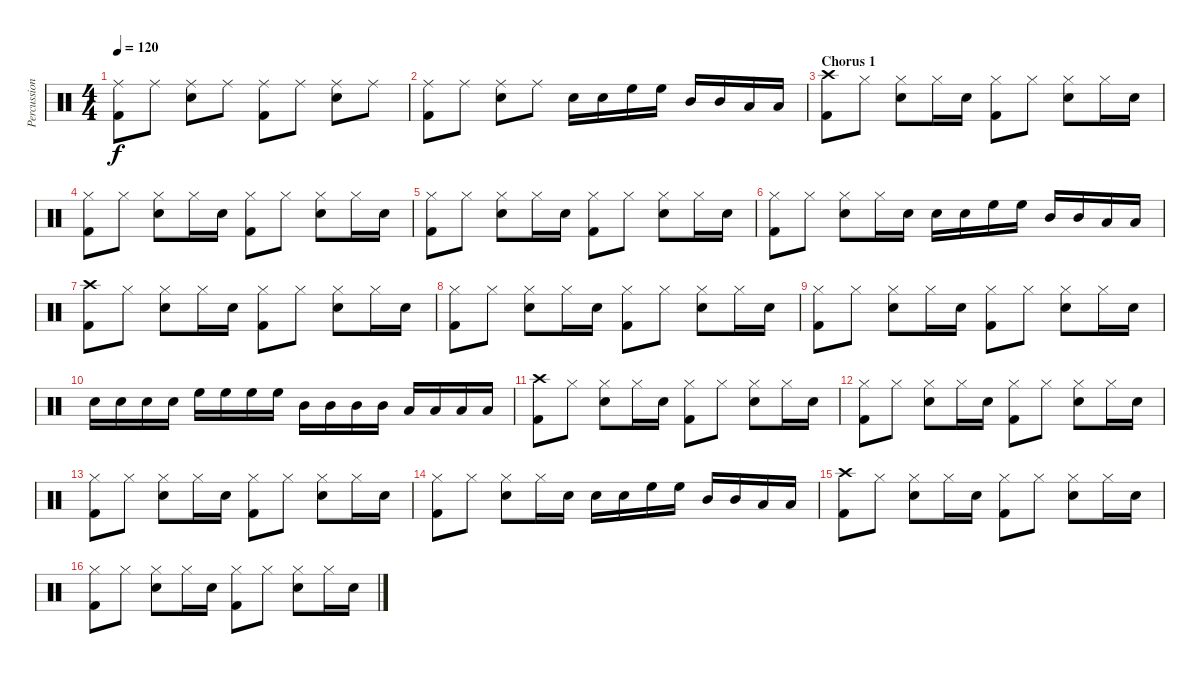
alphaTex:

\track ("Percussion" "Percussion") {instrument percussion}
\staff {score}
\articulation defaults
\ts (4 4)
\tempo 120
\clef neutral
\ks c
("Ride (middle)" "Kick (hit) 2").8{dy f} "Ride (middle)".8 ("Ride (middle)" "Electric Snare (hit)").8 "Ride (middle)".8 ("Ride (middle)" "Kick (hit) 2").8 "Ride (middle)".8 ("Ride (middle)" "Electric Snare (hit)").8 "Ride (middle)".8 |
("Ride (middle)" "Kick (hit) 2").8 "Ride (middle)".8 ("Ride (middle)" "Electric Snare (hit)").8 "Ride (middle)".8 "Electric Snare (hit)".16 "Electric Snare (hit)".16 "High Floor Tom (hit)".16 "High Floor Tom (hit)".16 "Mid Tom (hit)".16 "Mid Tom (hit)".16 "Low Tom (hit)".16 "Low Tom (hit)".16 |
\section ("" "Chorus 1")
("Crash high (hit)" "Kick (hit) 2").8 "Hi-Hat (closed)".8 ("Electric Snare (hit)" "Hi-Hat (closed)").8 "Hi-Hat (closed)".16 "Electric Snare (hit)".16 ("Hi-Hat (closed)" "Kick (hit) 2").8 "Hi-Hat (closed)".8 ("Electric Snare (hit)" "Hi-Hat (closed)").8 "Hi-Hat (closed)".16 "Electric Snare (hit)".16 |
("Hi-Hat (closed)" "Kick (hit) 2").8 "Hi-Hat (closed)".8 ("Electric Snare (hit)" "Hi-Hat (closed)").8 "Hi-Hat (closed)".16 "Electric Snare (hit)".16 ("Hi-Hat (closed)" "Kick (hit) 2").8 "Hi-Hat (closed)".8 ("Electric Snare (hit)" "Hi-Hat (closed)").8 "Hi-Hat (closed)".16 "Electric Snare (hit)".16 |
("Hi-Hat (closed)" "Kick (hit) 2").8 "Hi-Hat (closed)".8 ("Electric Snare (hit)" "Hi-Hat (closed)").8 "Hi-Hat (closed)".16 "Electric Snare (hit)".16 ("Hi-Hat (closed)" "Kick (hit) 2").8 "Hi-Hat (closed)".8 ("Electric Snare (hit)" "Hi-Hat (closed)").8 "Hi-Hat (closed)".16 "Electric Snare (hit)".16 |
("Hi-Hat (closed)" "Kick (hit) 2").8 "Hi-Hat (closed)".8 ("Electric Snare (hit)" "Hi-Hat (closed)").8 "Hi-Hat (closed)".16 "Electric Snare (hit)".16 "Electric Snare (hit)".16 "Electric Snare (hit)".16 "High Floor Tom (hit)".16 "High Floor Tom (hit)".16 "Mid Tom (hit)".16 "Mid Tom (hit)".16 "Low Tom (hit)".16 "Low Tom (hit)".16 |
("Crash high (hit)" "Kick (hit) 2").8 "Hi-Hat (closed)".8 ("Electric Snare (hit)" "Hi-Hat (closed)").8 "Hi-Hat (closed)".16 "Electric Snare (hit)".16 ("Hi-Hat (closed)" "Kick (hit) 2").8 "Hi-Hat (closed)".8 ("Electric Snare (hit)" "Hi-Hat (closed)").8 "Hi-Hat (closed)".16 "Electric Snare (hit)".16 |
("Hi-Hat (closed)" "Kick (hit) 2").8 "Hi-Hat (closed)".8 ("Electric Snare (hit)" "Hi-Hat (closed)").8 "Hi-Hat (closed)".16 "Electric Snare (hit)".16 ("Hi-Hat (closed)" "Kick (hit) 2").8 "Hi-Hat (closed)".8 ("Electric Snare (hit)" "Hi-Hat (closed)").8 "Hi-Hat (closed)".16 "Electric Snare (hit)".16 |
("Hi-Hat (closed)" "Kick (hit) 2").8 "Hi-Hat (closed)".8 ("Electric Snare (hit)" "Hi-Hat (closed)").8 "Hi-Hat (closed)".16 "Electric Snare (hit)".16 ("Hi-Hat (closed)" "Kick (hit) 2").8 "Hi-Hat (closed)".8 ("Electric Snare (hit)" "Hi-Hat (closed)").8 "Hi-Hat (closed)".16 "Electric Snare (hit)".16 |
"Electric Snare (hit)".16 "Electric Snare (hit)".16 "Electric Snare (hit)".16 "Electric Snare (hit)".16 "High Floor Tom (hit)".16 "High Floor Tom (hit)".16 "High Floor Tom (hit)".16 "High Floor Tom (hit)".16 "Mid Tom (hit)".16 "Mid Tom (hit)".16 "Mid Tom (hit)".16 "Mid Tom (hit)".16 "Low Tom (hit)".16 "Low Tom (hit)".16 "Low Tom (hit)".16 "Low Tom (hit)".16 |
("Crash high (hit)" "Kick (hit) 2").8 "Hi-Hat (closed)".8 ("Electric Snare (hit)" "Hi-Hat (closed)").8 "Hi-Hat (closed)".16 "Electric Snare (hit)".16 ("Hi-Hat (closed)" "Kick (hit) 2").8 "Hi-Hat (closed)".8 ("Electric Snare (hit)" "Hi-Hat (closed)").8 "Hi-Hat (closed)".16 "Electric Snare (hit)".16 |
("Hi-Hat (closed)" "Kick (hit) 2").8 "Hi-Hat (closed)".8 ("Electric Snare (hit)" "Hi-Hat (closed)").8 "Hi-Hat (closed)".16 "Electric Snare (hit)".16 ("Hi-Hat (closed)" "Kick (hit) 2").8 "Hi-Hat (closed)".8 ("Electric Snare (hit)" "Hi-Hat (closed)").8 "Hi-Hat (closed)".16 "Electric Snare (hit)".16 |
("Hi-Hat (closed)" "Kick (hit) 2").8 "Hi-Hat (closed)".8 ("Electric Snare (hit)" "Hi-Hat (closed)").8 "Hi-Hat (closed)".16 "Electric Snare (hit)".16 ("Hi-Hat (closed)" "Kick (hit) 2").8 "Hi-Hat (closed)".8 ("Electric Snare (hit)" "Hi-Hat (closed)").8 "Hi-Hat (closed)".16 "Electric Snare (hit)".16 |
("Hi-Hat (closed)" "Kick (hit) 2").8 "Hi-Hat (closed)".8 ("Electric Snare (hit)" "Hi-Hat (closed)").8 "Hi-Hat (closed)".16 "Electric Snare (hit)".16 "Electric Snare (hit)".16 "Electric Snare (hit)".16 "High Floor Tom (hit)".16 "High Floor Tom (hit)".16 "Mid Tom (hit)".16 "Mid Tom (hit)".16 "Low Tom (hit)".16 "Low Tom (hit)".16 |
("Crash high (hit)" "Kick (hit) 2").8 "Hi-Hat (closed)".8 ("Electric Snare (hit)" "Hi-Hat (closed)").8 "Hi-Hat (closed)".16 "Electric Snare (hit)".16 ("Hi-Hat (closed)" "Kick (hit) 2").8 "Hi-Hat (closed)".8 ("Electric Snare (hit)" "Hi-Hat (closed)").8 "Hi-Hat (closed)".16 "Electric Snare (hit)".16 |
("Hi-Hat (closed)" "Kick (hit) 2").8 "Hi-Hat (closed)".8 ("Electric Snare (hit)" "Hi-Hat (closed)").8 "Hi-Hat (closed)".16 "Electric Snare (hit)".16 ("Hi-Hat (closed)" "Kick (hit) 2").8 "Hi-Hat (closed)".8 ("Electric Snare (hit)" "Hi-Hat (closed)").8 "Hi-Hat (closed)".16 "Electric Snare (hit)".16
